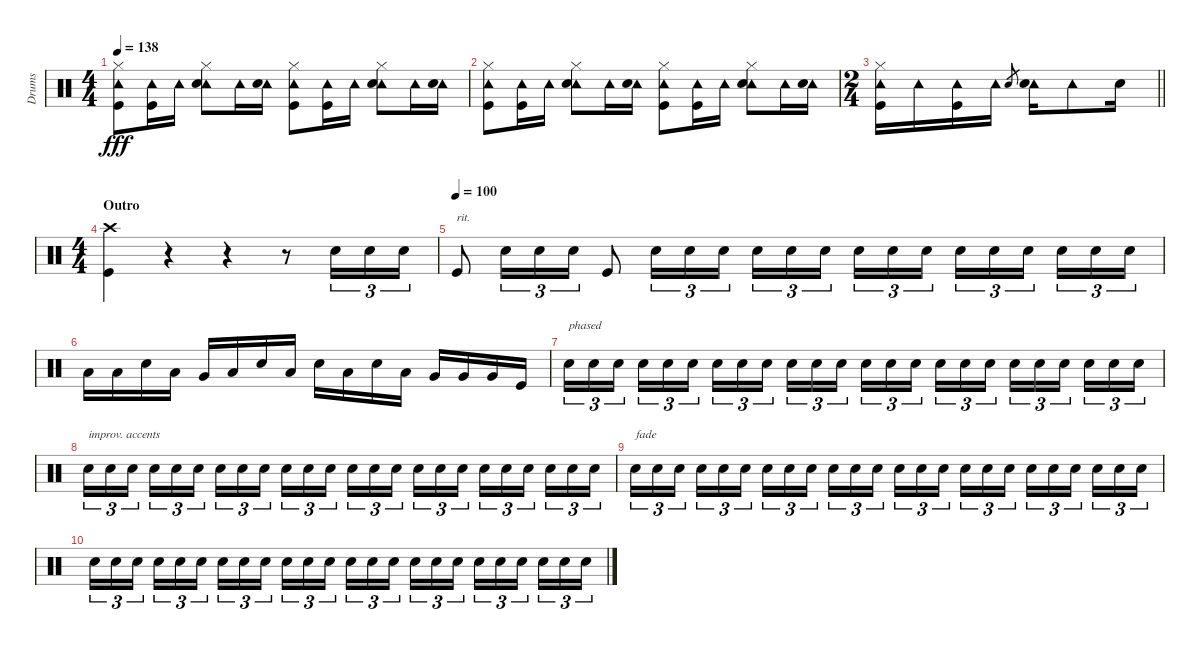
\track ("Drums" "Drums") {instrument percussion}
\staff {score}
\articulation defaults
\ts (4 4)
\tempo 138
\clef neutral
\ks c
("Hi-Hat (closed)" "Tambourine (hit)" "Kick (hit)").8{dy fff} ("Tambourine (hit)" "Kick (hit)").16 "Tambourine (hit)".16 ("Hi-Hat (closed)" "Tambourine (hit)" "Snare (hit) 2").8 "Tambourine (hit)".16 ("Tambourine (hit)" "Snare (hit) 2").16 ("Hi-Hat (closed)" "Tambourine (hit)" "Kick (hit)").8 ("Tambourine (hit)" "Kick (hit)").16 "Tambourine (hit)".16 ("Hi-Hat (closed)" "Tambourine (hit)" "Snare (hit) 2").8 "Tambourine (hit)".16 ("Tambourine (hit)" "Snare (hit) 2").16 |
("Hi-Hat (closed)" "Tambourine (hit)" "Kick (hit)").8 ("Tambourine (hit)" "Kick (hit)").16 "Tambourine (hit)".16 ("Hi-Hat (closed)" "Tambourine (hit)" "Snare (hit) 2").8 "Tambourine (hit)".16 ("Tambourine (hit)" "Snare (hit) 2").16 ("Hi-Hat (closed)" "Tambourine (hit)" "Kick (hit)").8 ("Tambourine (hit)" "Kick (hit)").16 "Tambourine (hit)".16 ("Hi-Hat (closed)" "Tambourine (hit)" "Snare (hit) 2").8 "Tambourine (hit)".16 ("Tambourine (hit)" "Snare (hit) 2").16 |
\ts (2 4)
\barLineRight lightlight
("Hi-Hat (closed)" "Tambourine (hit)" "Kick (hit)").16 "Tambourine (hit)".16 ("Tambourine (hit)" "Kick (hit)").16 "Tambourine (hit)".16 "Snare (hit) 2".8{gr} ("Tambourine (hit)" "Snare (hit) 2").16 "Tambourine (hit)".8 "Snare (hit) 2".16 |
\ts (4 4)
\section ("" "Outro")
("Crash high (hit)" "Kick (hit)").4 r.4 r.4 r.8 "Snare (hit) 2".16{tu (3 2)} "Snare (hit) 2".16{tu (3 2)} "Snare (hit) 2".16{tu (3 2)} |
\tempo (100)
"Kick (hit)".8{txt "rit."} "Snare (hit) 2".16{tu (3 2)} "Snare (hit) 2".16{tu (3 2)} "Snare (hit) 2".16{tu (3 2)} "Kick (hit)".8 "Snare (hit) 2".16{tu (3 2)} "Snare (hit) 2".16{tu (3 2)} "Snare (hit) 2".16{tu (3 2)} "Snare (hit) 2".16{tu (3 2)} "Snare (hit) 2".16{tu (3 2)} "Snare (hit) 2".16{tu (3 2) beam splitsecondary} "Snare (hit) 2".16{tu (3 2)} "Snare (hit) 2".16{tu (3 2)} "Snare (hit) 2".16{tu (3 2)} "Snare (hit) 2".16{tu (3 2)} "Snare (hit) 2".16{tu (3 2)} "Snare (hit) 2".16{tu (3 2) beam splitsecondary} "Snare (hit) 2".16{tu (3 2)} "Snare (hit) 2".16{tu (3 2)} "Snare (hit) 2".16{tu (3 2)} |
"Low Tom (hit)".16 "Low Tom (hit)".16 "Snare (hit) 2".16 "Low Tom (hit)".16 "Very Low Tom (hit)".16 "Low Tom (hit)".16 "Snare (hit) 2".16 "Low Tom (hit)".16 "Snare (hit) 2".16 "Low Tom (hit)".16 "Snare (hit) 2".16 "Low Tom (hit)".16 "Very Low Tom (hit)".16 "Very Low Tom (hit)".16 "Very Low Tom (hit)".16 "Kick (hit)".16 |
"Snare (hit) 2".16{tu (3 2) txt "phased"} "Snare (hit) 2".16{tu (3 2)} "Snare (hit) 2".16{tu (3 2) beam splitsecondary} "Snare (hit) 2".16{tu (3 2)} "Snare (hit) 2".16{tu (3 2)} "Snare (hit) 2".16{tu (3 2)} "Snare (hit) 2".16{tu (3 2)} "Snare (hit) 2".16{tu (3 2)} "Snare (hit) 2".16{tu (3 2) beam splitsecondary} "Snare (hit) 2".16{tu (3 2)} "Snare (hit) 2".16{tu (3 2)} "Snare (hit) 2".16{tu (3 2)} "Snare (hit) 2".16{tu (3 2)} "Snare (hit) 2".16{tu (3 2)} "Snare (hit) 2".16{tu (3 2) beam splitsecondary} "Snare (hit) 2".16{tu (3 2)} "Snare (hit) 2".16{tu (3 2)} "Snare (hit) 2".16{tu (3 2)} "Snare (hit) 2".16{tu (3 2)} "Snare (hit) 2".16{tu (3 2)} "Snare (hit) 2".16{tu (3 2) beam splitsecondary} "Snare (hit) 2".16{tu (3 2)} "Snare (hit) 2".16{tu (3 2)} "Snare (hit) 2".16{tu (3 2)} |
"Snare (hit) 2".16{tu (3 2) txt "improv. accents"} "Snare (hit) 2".16{tu (3 2)} "Snare (hit) 2".16{tu (3 2) beam splitsecondary} "Snare (hit) 2".16{tu (3 2)} "Snare (hit) 2".16{tu (3 2)} "Snare (hit) 2".16{tu (3 2)} "Snare (hit) 2".16{tu (3 2)} "Snare (hit) 2".16{tu (3 2)} "Snare (hit) 2".16{tu (3 2) beam splitsecondary} "Snare (hit) 2".16{tu (3 2)} "Snare (hit) 2".16{tu (3 2)} "Snare (hit) 2".16{tu (3 2)} "Snare (hit) 2".16{tu (3 2)} "Snare (hit) 2".16{tu (3 2)} "Snare (hit) 2".16{tu (3 2) beam splitsecondary} "Snare (hit) 2".16{tu (3 2)} "Snare (hit) 2".16{tu (3 2)} "Snare (hit) 2".16{tu (3 2)} "Snare (hit) 2".16{tu (3 2)} "Snare (hit) 2".16{tu (3 2)} "Snare (hit) 2".16{tu (3 2) beam splitsecondary} "Snare (hit) 2".16{tu (3 2)} "Snare (hit) 2".16{tu (3 2)} "Snare (hit) 2".16{tu (3 2)} |
"Snare (hit) 2".16{tu (3 2) txt "fade" volume 0} "Snare (hit) 2".16{tu (3 2)} "Snare (hit) 2".16{tu (3 2) beam splitsecondary} "Snare (hit) 2".16{tu (3 2)} "Snare (hit) 2".16{tu (3 2)} "Snare (hit) 2".16{tu (3 2)} "Snare (hit) 2".16{tu (3 2)} "Snare (hit) 2".16{tu (3 2)} "Snare (hit) 2".16{tu (3 2) beam splitsecondary} "Snare (hit) 2".16{tu (3 2)} "Snare (hit) 2".16{tu (3 2)} "Snare (hit) 2".16{tu (3 2)} "Snare (hit) 2".16{tu (3 2)} "Snare (hit) 2".16{tu (3 2)} "Snare (hit) 2".16{tu (3 2) beam splitsecondary} "Snare (hit) 2".16{tu (3 2)} "Snare (hit) 2".16{tu (3 2)} "Snare (hit) 2".16{tu (3 2)} "Snare (hit) 2".16{tu (3 2)} "Snare (hit) 2".16{tu (3 2)} "Snare (hit) 2".16{tu (3 2) beam splitsecondary} "Snare (hit) 2".16{tu (3 2)} "Snare (hit) 2".16{tu (3 2)} "Snare (hit) 2".16{tu (3 2)} |
"Snare (hit) 2".16{tu (3 2)} "Snare (hit) 2".16{tu (3 2)} "Snare (hit) 2".16{tu (3 2) beam splitsecondary} "Snare (hit) 2".16{tu (3 2)} "Snare (hit) 2".16{tu (3 2)} "Snare (hit) 2".16{tu (3 2)} "Snare (hit) 2".16{tu (3 2)} "Snare (hit) 2".16{tu (3 2)} "Snare (hit) 2".16{tu (3 2) beam splitsecondary} "Snare (hit) 2".16{tu (3 2)} "Snare (hit) 2".16{tu (3 2)} "Snare (hit) 2".16{tu (3 2)} "Snare (hit) 2".16{tu (3 2)} "Snare (hit) 2".16{tu (3 2)} "Snare (hit) 2".16{tu (3 2) beam splitsecondary} "Snare (hit) 2".16{tu (3 2)} "Snare (hit) 2".16{tu (3 2)} "Snare (hit) 2".16{tu (3 2)} "Snare (hit) 2".16{tu (3 2)} "Snare (hit) 2".16{tu (3 2)} "Snare (hit) 2".16{tu (3 2) beam splitsecondary} "Snare (hit) 2".16{tu (3 2)} "Snare (hit) 2".16{tu (3 2)} "Snare (hit) 2".16{tu (3 2)}
